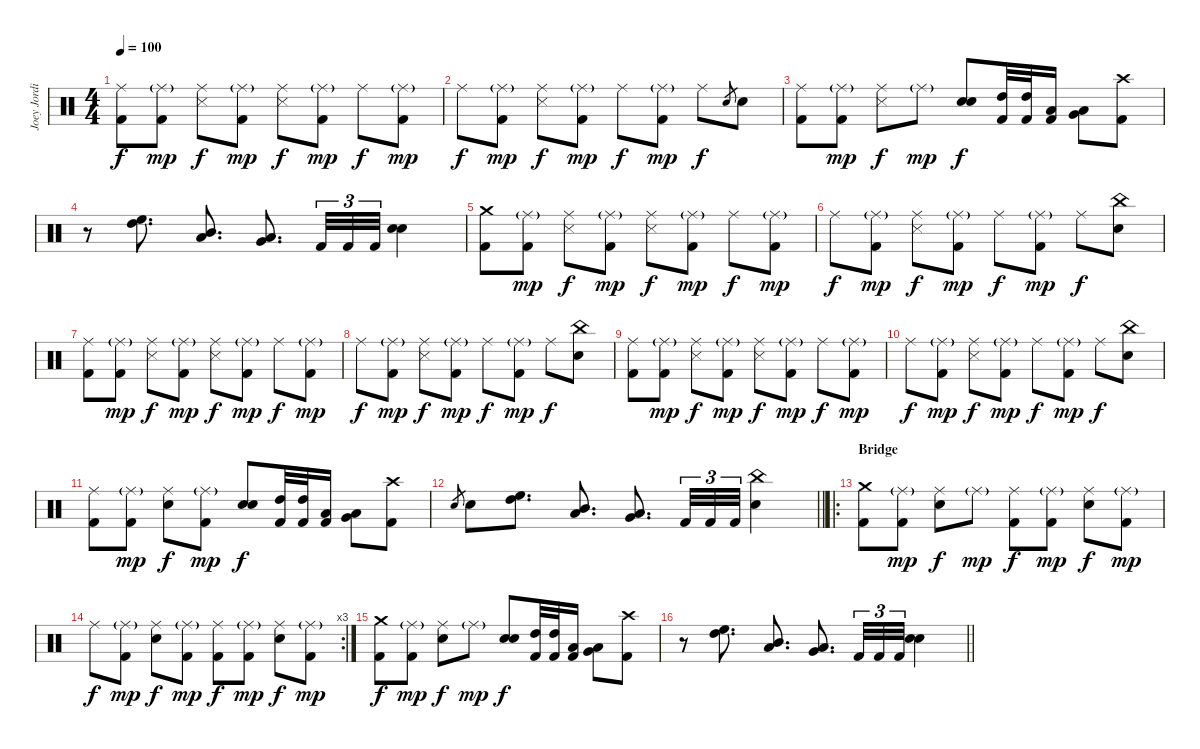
\track ("Joey Jordison" "Joey Jordi") {instrument percussion}
\staff {score}
\articulation defaults
\ts (4 4)
\tempo 100
\clef neutral
\ks c
("Ride (middle)" "Kick (hit) 2").8{dy f} ("Ride (middle)"{g} "Kick (hit) 2").8{dy mp} ("Ride (middle)" "Snare (side stick) 3").8{dy f} ("Ride (middle)"{g} "Kick (hit) 2").8{dy mp} ("Ride (middle)" "Snare (side stick) 3").8{dy f} ("Ride (middle)"{g} "Kick (hit) 2").8{dy mp} "Ride (middle)".8{dy f} ("Ride (middle)"{g} "Kick (hit) 2").8{dy mp} |
"Ride (middle)".8{dy f} ("Ride (middle)"{g} "Kick (hit) 2").8{dy mp} ("Ride (middle)" "Snare (side stick) 3").8{dy f} ("Ride (middle)"{g} "Kick (hit) 2").8{dy mp} "Ride (middle)".8{dy f} ("Ride (middle)"{g} "Kick (hit) 2").8{dy mp} "Ride (middle)".8{dy f} "Electric Snare (hit)".8{gr} "Electric Snare (hit)".8 |
("Ride (middle)" "Kick (hit) 2").8 ("Ride (middle)"{g} "Kick (hit) 2").8{dy mp} ("Ride (middle)" "Snare (side stick) 3").8{dy f} "Ride (middle)"{g}.8{dy mp} ("Electric Snare (hit)" "Electric Snare (hit)").8{dy f} ("High Tom (hit)" "Kick (hit) 2").32 ("High Tom (hit)" "Kick (hit) 2").32 ("Low Tom (hit)" "Kick (hit) 2").16 ("Very Low Tom (hit)" "Low Floor Tom (hit)").8 ("Crash high (hit)" "Kick (hit) 2").8 |
r.8 ("High Floor Tom (hit)" "High Tom (hit)").8{d} ("Mid Tom (hit)" "Low Tom (hit)").8{d} ("Very Low Tom (hit)" "Low Floor Tom (hit)").8{d} "Kick (hit) 2".32{tu (3 2)} "Kick (hit) 2".32{tu (3 2)} "Kick (hit) 2".32{tu (3 2)} ("Electric Snare (hit)" "Electric Snare (hit)").4 |
("Crash medium (hit)" "Kick (hit) 2").8 ("Ride (middle)"{g} "Kick (hit) 2").8{dy mp} ("Ride (middle)" "Snare (side stick) 3").8{dy f} ("Ride (middle)"{g} "Kick (hit) 2").8{dy mp} ("Ride (middle)" "Snare (side stick) 3").8{dy f} ("Ride (middle)"{g} "Kick (hit) 2").8{dy mp} "Ride (middle)".8{dy f} ("Ride (middle)"{g} "Kick (hit) 2").8{dy mp} |
"Ride (middle)".8{dy f} ("Ride (middle)"{g} "Kick (hit) 2").8{dy mp} ("Ride (middle)" "Snare (side stick) 3").8{dy f} ("Ride (middle)"{g} "Kick (hit) 2").8{dy mp} "Ride (middle)".8{dy f} ("Ride (middle)"{g} "Kick (hit) 2").8{dy mp} "Ride (middle)".8{dy f} ("China (hit)" "Electric Snare (hit)").8 |
("Ride (middle)" "Kick (hit) 2").8 ("Ride (middle)"{g} "Kick (hit) 2").8{dy mp} ("Ride (middle)" "Snare (side stick) 3").8{dy f} ("Ride (middle)"{g} "Kick (hit) 2").8{dy mp} ("Ride (middle)" "Snare (side stick) 3").8{dy f} ("Ride (middle)"{g} "Kick (hit) 2").8{dy mp} "Ride (middle)".8{dy f} ("Ride (middle)"{g} "Kick (hit) 2").8{dy mp} |
"Ride (middle)".8{dy f} ("Ride (middle)"{g} "Kick (hit) 2").8{dy mp} ("Ride (middle)" "Snare (side stick) 3").8{dy f} ("Ride (middle)"{g} "Kick (hit) 2").8{dy mp} "Ride (middle)".8{dy f} ("Ride (middle)"{g} "Kick (hit) 2").8{dy mp} "Ride (middle)".8{dy f} ("China (hit)" "Electric Snare (hit)").8 |
("Ride (middle)" "Kick (hit) 2").8 ("Ride (middle)"{g} "Kick (hit) 2").8{dy mp} ("Ride (middle)" "Snare (side stick) 3").8{dy f} ("Ride (middle)"{g} "Kick (hit) 2").8{dy mp} ("Ride (middle)" "Snare (side stick) 3").8{dy f} ("Ride (middle)"{g} "Kick (hit) 2").8{dy mp} "Ride (middle)".8{dy f} ("Ride (middle)"{g} "Kick (hit) 2").8{dy mp} |
"Ride (middle)".8{dy f} ("Ride (middle)"{g} "Kick (hit) 2").8{dy mp} ("Ride (middle)" "Snare (side stick) 3").8{dy f} ("Ride (middle)"{g} "Kick (hit) 2").8{dy mp} "Ride (middle)".8{dy f} ("Ride (middle)"{g} "Kick (hit) 2").8{dy mp} "Ride (middle)".8{dy f} ("China (hit)" "Electric Snare (hit)").8 |
("Ride (middle)" "Kick (hit) 2").8 ("Ride (middle)"{g} "Kick (hit) 2").8{dy mp} ("Ride (middle)" "Electric Snare (hit)").8{dy f} ("Ride (middle)"{g} "Kick (hit) 2").8{dy mp} ("Electric Snare (hit)" "Electric Snare (hit)").8{dy f} ("High Tom (hit)" "Kick (hit) 2").32 ("High Tom (hit)" "Kick (hit) 2").32 ("Low Tom (hit)" "Kick (hit) 2").16 ("Very Low Tom (hit)" "Low Floor Tom (hit)").8 ("Crash high (hit)" "Kick (hit) 2").8 |
\barLineRight lightlight "Electric Snare (hit)".8{gr} "Electric Snare (hit)".8
("High Floor Tom (hit)" "High Tom (hit)").8{d} ("Mid Tom (hit)" "Low Tom (hit)").8{d} ("Very Low Tom (hit)" "Low Floor Tom (hit)").8{d} "Kick (hit) 2".32{tu (3 2)} "Kick (hit) 2".32{tu (3 2)} "Kick (hit) 2".32{tu (3 2)} ("China (hit)" "Electric Snare (hit)").4 |
\ro
\section ("" "Bridge ")
("Crash medium (hit)" "Kick (hit) 2").8 ("Ride (middle)"{g} "Kick (hit) 2").8{dy mp} ("Ride (middle)" "Electric Snare (hit)").8{dy f} "Ride (middle)"{g}.8{dy mp} ("Ride (middle)" "Kick (hit) 2").8{dy f} ("Ride (middle)"{g} "Kick (hit) 2").8{dy mp} ("Ride (middle)" "Electric Snare (hit)").8{dy f} ("Ride (middle)"{g} "Kick (hit) 2").8{dy mp} |
\rc 3 "Ride (middle)".8{dy f}
("Ride (middle)"{g} "Kick (hit) 2").8{dy mp} ("Ride (middle)" "Electric Snare (hit)").8{dy f} ("Ride (middle)"{g} "Kick (hit) 2").8{dy mp} ("Ride (middle)" "Kick (hit) 2").8{dy f} ("Ride (middle)"{g} "Kick (hit) 2").8{dy mp} ("Ride (middle)" "Electric Snare (hit)").8{dy f} ("Ride (middle)"{g} "Kick (hit) 2").8{dy mp} |
("Crash medium (hit)" "Kick (hit) 2").8{dy f} ("Ride (middle)"{g} "Kick (hit) 2").8{dy mp} ("Ride (middle)" "Electric Snare (hit)").8{dy f} "Ride (middle)"{g}.8{dy mp} ("Electric Snare (hit)" "Electric Snare (hit)").8{dy f} ("High Tom (hit)" "Kick (hit) 2").32 ("High Tom (hit)" "Kick (hit) 2").32 ("Low Tom (hit)" "Kick (hit) 2").16 ("Very Low Tom (hit)" "Low Floor Tom (hit)").8 ("Crash high (hit)" "Kick (hit) 2").8 |
\barLineRight lightlight
r.8 ("High Floor Tom (hit)" "High Tom (hit)").8{d} ("Mid Tom (hit)" "Low Tom (hit)").8{d} ("Very Low Tom (hit)" "Low Floor Tom (hit)").8{d} "Kick (hit) 2".32{tu (3 2)} "Kick (hit) 2".32{tu (3 2)} "Kick (hit) 2".32{tu (3 2)} ("Electric Snare (hit)" "Electric Snare (hit)").4
